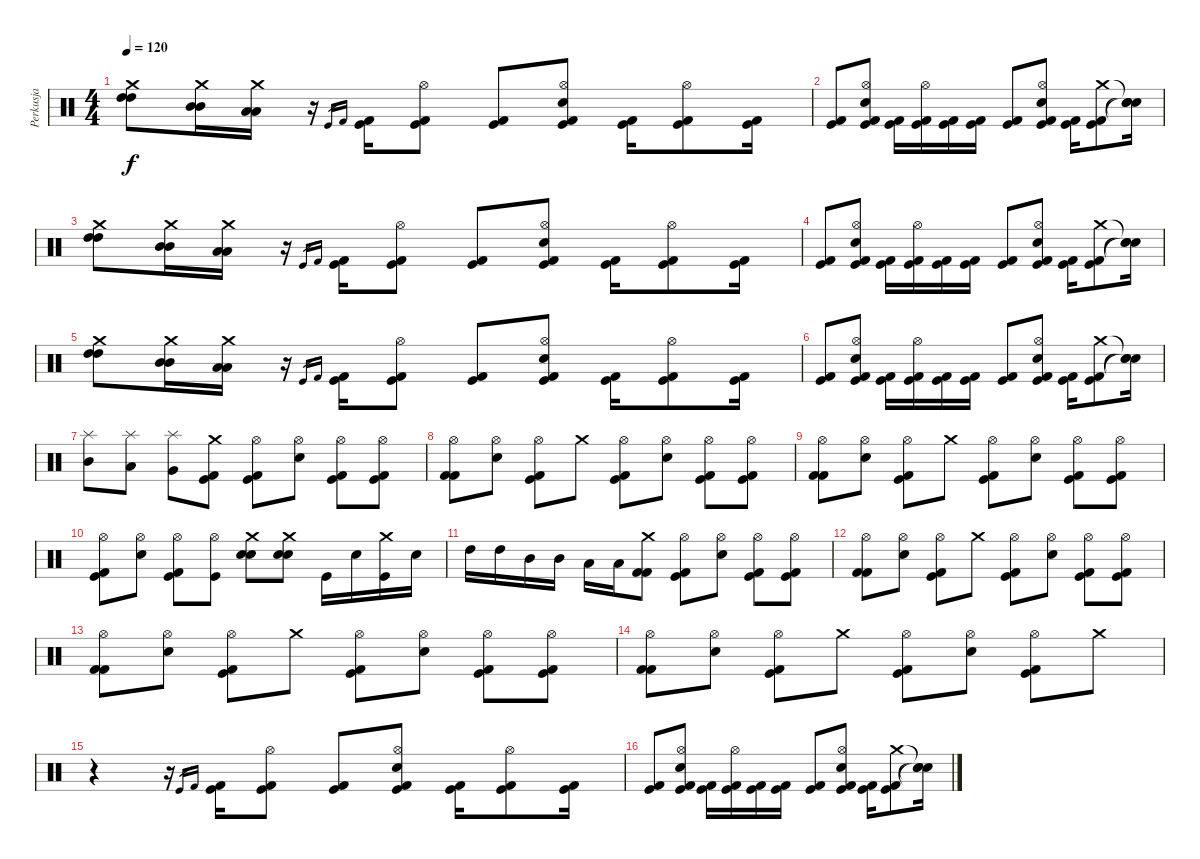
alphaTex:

\track ("Perkusja" "Perkusja") {instrument percussion}
\staff {score}
\articulation defaults
\ts (4 4)
\tempo 120
\clef neutral
\ks c
("Crash medium (hit)" "High Tom (hit)" "High Tom (hit)").8{dy f} ("Crash medium (hit)" "Mid Tom (hit)" "Mid Tom (hit)").16 ("Crash medium (hit)" "Low Tom (hit)" "Low Tom (hit)").16 r.16 "Kick (hit)".16{gr} "Kick (hit) 2".16{gr} ("Kick (hit)" "Kick (hit) 2").16 ("Hi-Hat (open)" "Kick (hit)" "Kick (hit) 2").8 ("Kick (hit)" "Kick (hit) 2").8 ("Hi-Hat (open)" "Snare (hit) 2" "Kick (hit)" "Kick (hit) 2").8 ("Kick (hit)" "Kick (hit) 2").16 ("Hi-Hat (open)" "Kick (hit)" "Kick (hit) 2").8 ("Kick (hit)" "Kick (hit) 2").16 |
("Kick (hit)" "Kick (hit) 2").8 ("Snare (hit) 2" "Hi-Hat (open)" "Kick (hit)" "Kick (hit) 2").8 ("Kick (hit)" "Kick (hit) 2").16 ("Hi-Hat (open)" "Kick (hit)" "Kick (hit) 2").16 ("Kick (hit)" "Kick (hit) 2").16 ("Kick (hit)" "Kick (hit) 2").16 ("Kick (hit)" "Kick (hit) 2").8 ("Hi-Hat (open)" "Snare (hit) 2" "Kick (hit)" "Kick (hit) 2").8 ("Kick (hit)" "Kick (hit) 2").16 ("Crash medium (hit)" "Kick (hit)" "Kick (hit) 2").8 ("Snare (hit)"{t} "Snare (hit)"{t} "Snare (hit)"{t}).16 |
("Crash medium (hit)" "High Tom (hit)" "High Tom (hit)").8 ("Crash medium (hit)" "Mid Tom (hit)" "Mid Tom (hit)").16 ("Crash medium (hit)" "Low Tom (hit)" "Low Tom (hit)").16 r.16 "Kick (hit)".16{gr} "Kick (hit) 2".16{gr} ("Kick (hit)" "Kick (hit) 2").16 ("Hi-Hat (open)" "Kick (hit)" "Kick (hit) 2").8 ("Kick (hit)" "Kick (hit) 2").8 ("Hi-Hat (open)" "Snare (hit) 2" "Kick (hit)" "Kick (hit) 2").8 ("Kick (hit)" "Kick (hit) 2").16 ("Hi-Hat (open)" "Kick (hit)" "Kick (hit) 2").8 ("Kick (hit)" "Kick (hit) 2").16 |
("Kick (hit)" "Kick (hit) 2").8 ("Snare (hit) 2" "Hi-Hat (open)" "Kick (hit)" "Kick (hit) 2").8 ("Kick (hit)" "Kick (hit) 2").16 ("Hi-Hat (open)" "Kick (hit)" "Kick (hit) 2").16 ("Kick (hit)" "Kick (hit) 2").16 ("Kick (hit)" "Kick (hit) 2").16 ("Kick (hit)" "Kick (hit) 2").8 ("Hi-Hat (open)" "Snare (hit) 2" "Kick (hit)" "Kick (hit) 2").8 ("Kick (hit)" "Kick (hit) 2").16 ("Crash medium (hit)" "Kick (hit)" "Kick (hit) 2").8 ("Snare (hit)"{t} "Snare (hit)"{t} "Snare (hit)"{t}).16 |
("Crash medium (hit)" "High Tom (hit)" "High Tom (hit)").8 ("Crash medium (hit)" "Mid Tom (hit)" "Mid Tom (hit)").16 ("Crash medium (hit)" "Low Tom (hit)" "Low Tom (hit)").16 r.16 "Kick (hit)".16{gr} "Kick (hit) 2".16{gr} ("Kick (hit)" "Kick (hit) 2").16 ("Hi-Hat (open)" "Kick (hit)" "Kick (hit) 2").8 ("Kick (hit)" "Kick (hit) 2").8 ("Hi-Hat (open)" "Snare (hit) 2" "Kick (hit)" "Kick (hit) 2").8 ("Kick (hit)" "Kick (hit) 2").16 ("Hi-Hat (open)" "Kick (hit)" "Kick (hit) 2").8 ("Kick (hit)" "Kick (hit) 2").16 |
("Kick (hit)" "Kick (hit) 2").8 ("Snare (hit) 2" "Hi-Hat (open)" "Kick (hit)" "Kick (hit) 2").8 ("Kick (hit)" "Kick (hit) 2").16 ("Hi-Hat (open)" "Kick (hit)" "Kick (hit) 2").16 ("Kick (hit)" "Kick (hit) 2").16 ("Kick (hit)" "Kick (hit) 2").16 ("Kick (hit)" "Kick (hit) 2").8 ("Hi-Hat (open)" "Snare (hit) 2" "Kick (hit)" "Kick (hit) 2").8 ("Kick (hit)" "Kick (hit) 2").16 ("Crash medium (hit)" "Kick (hit)" "Kick (hit) 2").8 ("Snare (hit)"{t} "Snare (hit)"{t} "Snare (hit)"{t}).16 |
("Splash (hit)" "Mid Tom (hit)").8 ("Splash (hit)" "Low Tom (hit)").8 ("Splash (hit)" "Very Low Tom (hit)").8 ("Crash medium (hit)" "Kick (hit)" "Kick (hit) 2").8 ("Hi-Hat (open)" "Kick (hit)" "Kick (hit) 2").8 ("Hi-Hat (open)" "Snare (hit) 2").8 ("Hi-Hat (open)" "Kick (hit)" "Kick (hit) 2").8 ("Hi-Hat (open)" "Kick (hit)" "Kick (hit) 2").8 |
("Hi-Hat (open)" "Kick (hit) 2" "Kick (hit) 2").8 ("Hi-Hat (open)" "Snare (hit) 2").8 ("Hi-Hat (open)" "Kick (hit)" "Kick (hit) 2").8 "Crash medium (hit)".8 ("Hi-Hat (open)" "Kick (hit)" "Kick (hit) 2").8 ("Hi-Hat (open)" "Snare (hit) 2").8 ("Hi-Hat (open)" "Kick (hit)" "Kick (hit) 2").8 ("Hi-Hat (open)" "Kick (hit)" "Kick (hit) 2").8 |
("Hi-Hat (open)" "Kick (hit) 2" "Kick (hit) 2").8 ("Hi-Hat (open)" "Snare (hit) 2").8 ("Hi-Hat (open)" "Kick (hit)" "Kick (hit) 2").8 "Crash medium (hit)".8 ("Hi-Hat (open)" "Kick (hit)" "Kick (hit) 2").8 ("Hi-Hat (open)" "Snare (hit) 2").8 ("Hi-Hat (open)" "Kick (hit)" "Kick (hit) 2").8 ("Hi-Hat (open)" "Kick (hit)" "Kick (hit) 2").8 |
("Hi-Hat (open)" "Kick (hit)" "Kick (hit) 2").8 ("Hi-Hat (open)" "Snare (hit) 2").8 ("Hi-Hat (open)" "Kick (hit)" "Kick (hit) 2").8 ("Hi-Hat (open)" "Kick (hit)").8 ("Crash medium (hit)" "Snare (hit) 2" "Electric Snare (hit)").8 ("Crash medium (hit)" "Snare (hit) 2" "Electric Snare (hit)").8 "Kick (hit)".16 "Snare (hit) 2".16 ("Crash medium (hit)" "Kick (hit)").16 "Snare (hit) 2".16 |
"High Tom (hit)".16 "High Tom (hit)".16 "Mid Tom (hit)".16 "Mid Tom (hit)".16 "Low Tom (hit)".16 "Low Tom (hit)".16 ("Crash medium (hit)" "Kick (hit) 2" "Kick (hit) 2").8 ("Hi-Hat (open)" "Kick (hit)" "Kick (hit) 2").8 ("Hi-Hat (open)" "Snare (hit) 2").8 ("Hi-Hat (open)" "Kick (hit)" "Kick (hit) 2").8 ("Hi-Hat (open)" "Kick (hit)" "Kick (hit) 2").8 |
("Hi-Hat (open)" "Kick (hit) 2" "Kick (hit) 2").8 ("Hi-Hat (open)" "Snare (hit) 2").8 ("Hi-Hat (open)" "Kick (hit)" "Kick (hit) 2").8 "Crash medium (hit)".8 ("Hi-Hat (open)" "Kick (hit)" "Kick (hit) 2").8 ("Hi-Hat (open)" "Snare (hit) 2").8 ("Hi-Hat (open)" "Kick (hit)" "Kick (hit) 2").8 ("Hi-Hat (open)" "Kick (hit)" "Kick (hit) 2").8 |
("Hi-Hat (open)" "Kick (hit) 2" "Kick (hit) 2").8 ("Hi-Hat (open)" "Snare (hit) 2").8 ("Hi-Hat (open)" "Kick (hit)" "Kick (hit) 2").8 "Crash medium (hit)".8 ("Hi-Hat (open)" "Kick (hit)" "Kick (hit) 2").8 ("Hi-Hat (open)" "Snare (hit) 2").8 ("Hi-Hat (open)" "Kick (hit)" "Kick (hit) 2").8 ("Hi-Hat (open)" "Kick (hit)" "Kick (hit) 2").8 |
("Hi-Hat (open)" "Kick (hit) 2" "Kick (hit) 2").8 ("Hi-Hat (open)" "Snare (hit) 2").8 ("Hi-Hat (open)" "Kick (hit)" "Kick (hit) 2").8 "Crash medium (hit)".8 ("Hi-Hat (open)" "Kick (hit)" "Kick (hit) 2").8 ("Hi-Hat (open)" "Snare (hit) 2").8 ("Hi-Hat (open)" "Kick (hit)" "Kick (hit) 2").8 "Crash medium (hit)".8 |
r.4 r.16 "Kick (hit)".16{gr} "Kick (hit) 2".16{gr} ("Kick (hit)" "Kick (hit) 2").16 ("Hi-Hat (open)" "Kick (hit)" "Kick (hit) 2").8 ("Kick (hit)" "Kick (hit) 2").8 ("Hi-Hat (open)" "Snare (hit) 2" "Kick (hit)" "Kick (hit) 2").8 ("Kick (hit)" "Kick (hit) 2").16 ("Hi-Hat (open)" "Kick (hit)" "Kick (hit) 2").8 ("Kick (hit)" "Kick (hit) 2").16 |
("Kick (hit)" "Kick (hit) 2").8 ("Snare (hit) 2" "Hi-Hat (open)" "Kick (hit)" "Kick (hit) 2").8 ("Kick (hit)" "Kick (hit) 2").16 ("Hi-Hat (open)" "Kick (hit)" "Kick (hit) 2").16 ("Kick (hit)" "Kick (hit) 2").16 ("Kick (hit)" "Kick (hit) 2").16 ("Kick (hit)" "Kick (hit) 2").8 ("Hi-Hat (open)" "Snare (hit) 2" "Kick (hit)" "Kick (hit) 2").8 ("Kick (hit)" "Kick (hit) 2").16 ("Crash medium (hit)" "Kick (hit)" "Kick (hit) 2").8 ("Snare (hit)"{t} "Snare (hit)"{t} "Snare (hit)"{t}).16
